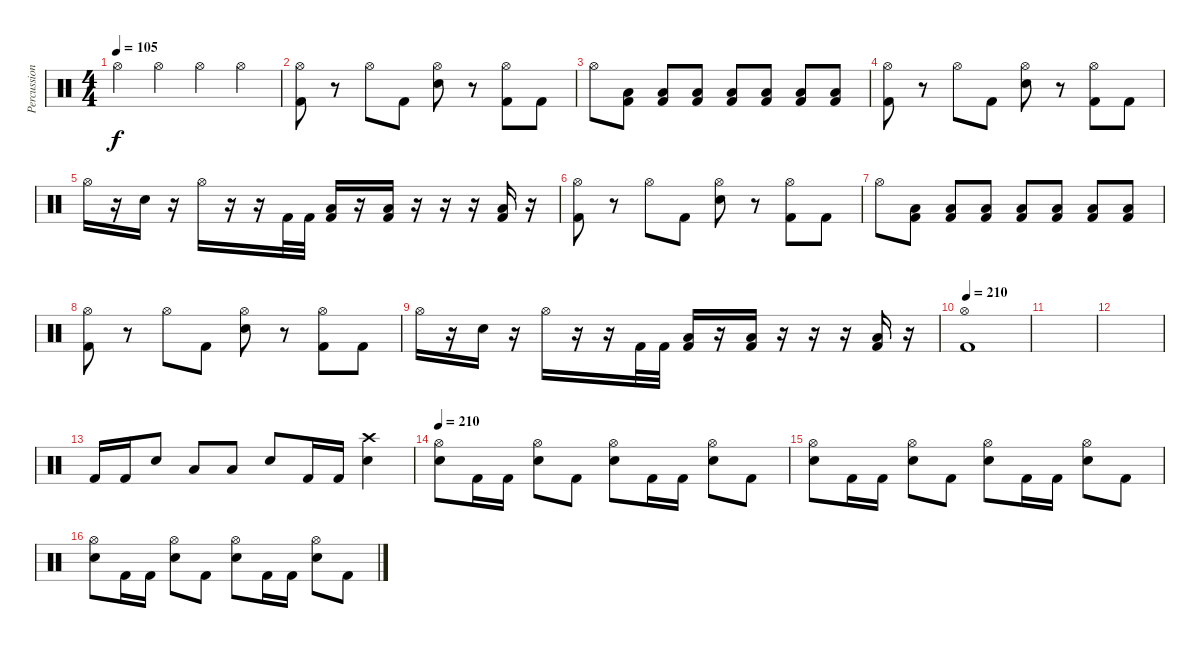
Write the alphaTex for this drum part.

\track ("Percussion" "Percussion") {instrument percussion}
\staff {score}
\articulation defaults
\ts (4 4)
\tempo 105
\clef neutral
\ks c "Hi-Hat (open)".4{dy f} "Hi-Hat (open)".4 "Hi-Hat (open)".4 "Hi-Hat (open)".4
|
("Hi-Hat (open)" "Kick (hit) 2").8 r.8 "Hi-Hat (open)".8 "Kick (hit) 2".8 ("Hi-Hat (open)" "Electric Snare (hit)").8 r.8 ("Hi-Hat (open)" "Kick (hit) 2").8 "Kick (hit) 2".8 |
"Hi-Hat (open)".8 ("Low Tom (hit)" "Kick (hit) 2").8 ("Low Tom (hit)" "Kick (hit) 2").8 ("Low Tom (hit)" "Kick (hit) 2").8 ("Low Tom (hit)" "Kick (hit) 2").8 ("Low Tom (hit)" "Kick (hit) 2").8 ("Low Tom (hit)" "Kick (hit) 2").8 ("Low Tom (hit)" "Kick (hit) 2").8 |
("Hi-Hat (open)" "Kick (hit) 2").8 r.8 "Hi-Hat (open)".8 "Kick (hit) 2".8 ("Hi-Hat (open)" "Electric Snare (hit)").8 r.8 ("Hi-Hat (open)" "Kick (hit) 2").8 "Kick (hit) 2".8 |
"Hi-Hat (open)".16 r.16 "Electric Snare (hit)".16 r.16 "Hi-Hat (open)".16 r.16 r.16 "Kick (hit) 2".32 "Kick (hit) 2".32 ("Low Tom (hit)" "Kick (hit) 2").16 r.16 ("Low Tom (hit)" "Kick (hit) 2").16 r.16 r.16 r.16 ("Low Tom (hit)" "Kick (hit) 2").16 r.16 |
("Hi-Hat (open)" "Kick (hit) 2").8 r.8 "Hi-Hat (open)".8 "Kick (hit) 2".8 ("Hi-Hat (open)" "Electric Snare (hit)").8 r.8 ("Hi-Hat (open)" "Kick (hit) 2").8 "Kick (hit) 2".8 |
"Hi-Hat (open)".8 ("Low Tom (hit)" "Kick (hit) 2").8 ("Low Tom (hit)" "Kick (hit) 2").8 ("Low Tom (hit)" "Kick (hit) 2").8 ("Low Tom (hit)" "Kick (hit) 2").8 ("Low Tom (hit)" "Kick (hit) 2").8 ("Low Tom (hit)" "Kick (hit) 2").8 ("Low Tom (hit)" "Kick (hit) 2").8 |
("Hi-Hat (open)" "Kick (hit) 2").8 r.8 "Hi-Hat (open)".8 "Kick (hit) 2".8 ("Hi-Hat (open)" "Electric Snare (hit)").8 r.8 ("Hi-Hat (open)" "Kick (hit) 2").8 "Kick (hit) 2".8 |
"Hi-Hat (open)".16 r.16 "Electric Snare (hit)".16 r.16 "Hi-Hat (open)".16 r.16 r.16 "Kick (hit) 2".32 "Kick (hit) 2".32 ("Low Tom (hit)" "Kick (hit) 2").16 r.16 ("Low Tom (hit)" "Kick (hit) 2").16 r.16 r.16 r.16 ("Low Tom (hit)" "Kick (hit) 2").16 r.16 |
\tempo 210
("Hi-Hat (open)" "Kick (hit) 2").1 |
|
|
"Kick (hit) 2".16 "Kick (hit) 2".16 "Electric Snare (hit)".8 "Low Tom (hit)".8 "Low Floor Tom (hit)".8 "Electric Snare (hit)".8 "Kick (hit) 2".16 "Kick (hit) 2".16 ("Crash high (hit)" "Electric Snare (hit)").4 |
\tempo 210
("Hi-Hat (open)" "Electric Snare (hit)").8 "Kick (hit) 2".16 "Kick (hit) 2".16 ("Hi-Hat (open)" "Electric Snare (hit)").8 "Kick (hit) 2".8 ("Hi-Hat (open)" "Electric Snare (hit)").8 "Kick (hit) 2".16 "Kick (hit) 2".16 ("Hi-Hat (open)" "Electric Snare (hit)").8 "Kick (hit) 2".8 |
("Hi-Hat (open)" "Electric Snare (hit)").8 "Kick (hit) 2".16 "Kick (hit) 2".16 ("Hi-Hat (open)" "Electric Snare (hit)").8 "Kick (hit) 2".8 ("Hi-Hat (open)" "Electric Snare (hit)").8 "Kick (hit) 2".16 "Kick (hit) 2".16 ("Hi-Hat (open)" "Electric Snare (hit)").8 "Kick (hit) 2".8 |
("Hi-Hat (open)" "Electric Snare (hit)").8 "Kick (hit) 2".16 "Kick (hit) 2".16 ("Hi-Hat (open)" "Electric Snare (hit)").8 "Kick (hit) 2".8 ("Hi-Hat (open)" "Electric Snare (hit)").8 "Kick (hit) 2".16 "Kick (hit) 2".16 ("Hi-Hat (open)" "Electric Snare (hit)").8 "Kick (hit) 2".8
